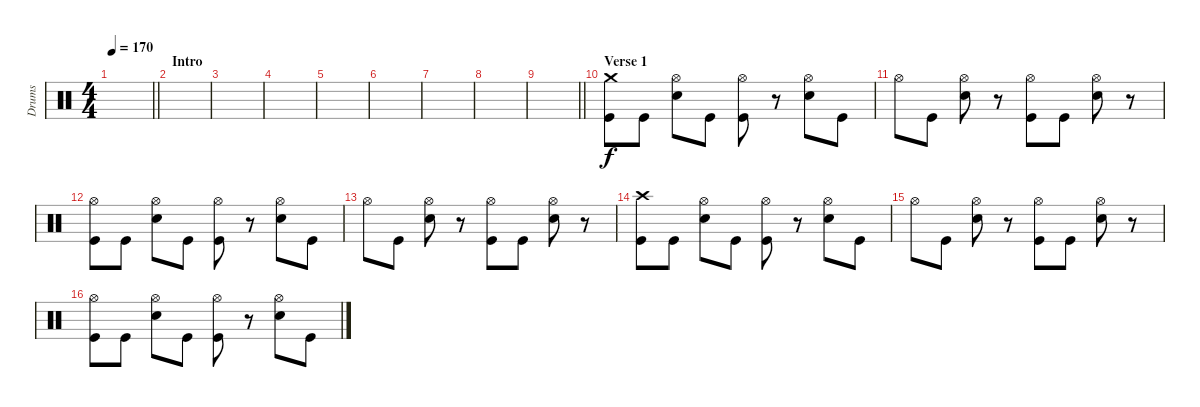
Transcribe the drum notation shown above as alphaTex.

\track ("Drums" "Drums") {instrument percussion}
\staff {score}
\articulation defaults
\ts (4 4)
\tempo 170
\clef neutral
\barLineRight lightlight
\ks c
|
\section ("" "Intro")
|
|
|
|
|
|
|
\barLineRight lightlight
|
\section ("" "Verse 1")
("Crash medium (hit)" "Kick (hit)").8 "Kick (hit)".8 ("Hi-Hat (open)" "Snare (hit) 2").8 "Kick (hit)".8 ("Hi-Hat (open)" "Kick (hit)").8 r.8 ("Hi-Hat (open)" "Snare (hit) 2").8 "Kick (hit)".8 |
"Hi-Hat (open)".8 "Kick (hit)".8 ("Hi-Hat (open)" "Snare (hit) 2").8 r.8 ("Hi-Hat (open)" "Kick (hit)").8 "Kick (hit)".8 ("Hi-Hat (open)" "Snare (hit) 2").8 r.8 |
("Hi-Hat (open)" "Kick (hit)").8 "Kick (hit)".8 ("Hi-Hat (open)" "Snare (hit) 2").8 "Kick (hit)".8 ("Hi-Hat (open)" "Kick (hit)").8 r.8 ("Hi-Hat (open)" "Snare (hit) 2").8 "Kick (hit)".8 |
"Hi-Hat (open)".8 "Kick (hit)".8 ("Hi-Hat (open)" "Snare (hit) 2").8 r.8 ("Hi-Hat (open)" "Kick (hit)").8 "Kick (hit)".8 ("Hi-Hat (open)" "Snare (hit) 2").8 r.8 |
("Crash high (hit)" "Kick (hit)").8 "Kick (hit)".8 ("Hi-Hat (open)" "Snare (hit) 2").8 "Kick (hit)".8 ("Hi-Hat (open)" "Kick (hit)").8 r.8 ("Hi-Hat (open)" "Snare (hit) 2").8 "Kick (hit)".8 |
"Hi-Hat (open)".8 "Kick (hit)".8 ("Hi-Hat (open)" "Snare (hit) 2").8 r.8 ("Hi-Hat (open)" "Kick (hit)").8 "Kick (hit)".8 ("Hi-Hat (open)" "Snare (hit) 2").8 r.8 |
("Hi-Hat (open)" "Kick (hit)").8 "Kick (hit)".8 ("Hi-Hat (open)" "Snare (hit) 2").8 "Kick (hit)".8 ("Hi-Hat (open)" "Kick (hit)").8 r.8 ("Hi-Hat (open)" "Snare (hit) 2").8 "Kick (hit)".8
